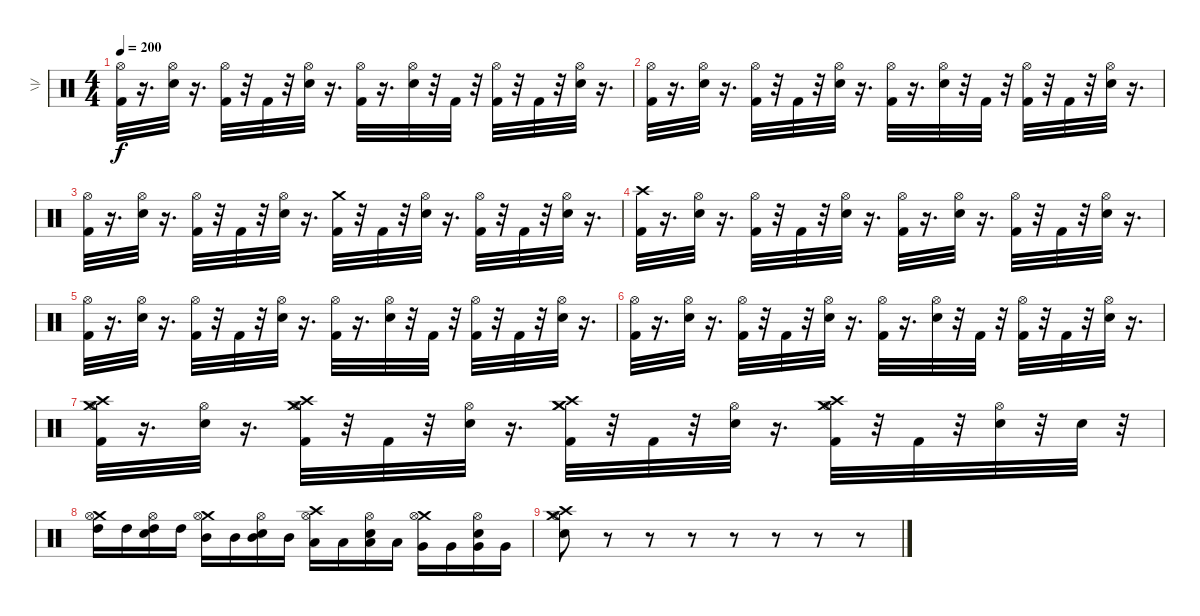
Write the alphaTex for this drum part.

\track ("  \\|/" "  \\|/") {instrument percussion}
\staff {score}
\articulation defaults
\ts (4 4)
\tempo 200
\clef neutral
\ks c
("Hi-Hat (open)" "Kick (hit) 2").32{dy f} r.16{d} ("Hi-Hat (open)" "Snare (hit) 2").32 r.16{d} ("Hi-Hat (open)" "Kick (hit) 2").32 r.32 "Kick (hit) 2".32 r.32 ("Hi-Hat (open)" "Snare (hit) 2").32 r.16{d} ("Hi-Hat (open)" "Kick (hit) 2").32 r.16{d} ("Hi-Hat (open)" "Snare (hit) 2").32 r.32 "Kick (hit) 2".32 r.32 ("Hi-Hat (open)" "Kick (hit) 2").32 r.32 "Kick (hit) 2".32 r.32 ("Snare (hit) 2" "Hi-Hat (open)").32 r.16{d} |
("Hi-Hat (open)" "Kick (hit) 2").32 r.16{d} ("Snare (hit) 2" "Hi-Hat (open)").32 r.16{d} ("Kick (hit) 2" "Hi-Hat (open)").32 r.32 "Kick (hit) 2".32 r.32 ("Hi-Hat (open)" "Snare (hit) 2").32 r.16{d} ("Kick (hit) 2" "Hi-Hat (open)").32 r.16{d} ("Snare (hit) 2" "Hi-Hat (open)").32 r.32 "Kick (hit) 2".32 r.32 ("Hi-Hat (open)" "Kick (hit) 2").32 r.32 "Kick (hit) 2".32 r.32 ("Snare (hit) 2" "Hi-Hat (open)").32 r.16{d} |
("Kick (hit) 2" "Hi-Hat (open)").32 r.16{d} ("Hi-Hat (open)" "Snare (hit) 2").32 r.16{d} ("Kick (hit) 2" "Hi-Hat (open)").32 r.32 "Kick (hit) 2".32 r.32 ("Snare (hit) 2" "Hi-Hat (open)").32 r.16{d} ("Crash medium (hit)" "Kick (hit) 2").32 r.32 "Kick (hit) 2".32 r.32 ("Hi-Hat (open)" "Snare (hit) 2").32 r.16{d} ("Hi-Hat (open)" "Kick (hit) 2").32 r.32 "Kick (hit) 2".32 r.32 ("Snare (hit) 2" "Hi-Hat (open)").32 r.16{d} |
("Crash high (hit)" "Kick (hit) 2").32 r.16{d} ("Snare (hit) 2" "Hi-Hat (open)").32 r.16{d} ("Kick (hit) 2" "Hi-Hat (open)").32 r.32 "Kick (hit) 2".32 r.32 ("Hi-Hat (open)" "Snare (hit) 2").32 r.16{d} ("Kick (hit) 2" "Hi-Hat (open)").32 r.16{d} ("Hi-Hat (open)" "Snare (hit) 2").32 r.16{d} ("Kick (hit) 2" "Hi-Hat (open)").32 r.32 "Kick (hit) 2".32 r.32 ("Snare (hit) 2" "Hi-Hat (open)").32 r.16{d} |
("Hi-Hat (open)" "Kick (hit) 2").32 r.16{d} ("Snare (hit) 2" "Hi-Hat (open)").32 r.16{d} ("Hi-Hat (open)" "Kick (hit) 2").32 r.32 "Kick (hit) 2".32 r.32 ("Snare (hit) 2" "Hi-Hat (open)").32 r.16{d} ("Hi-Hat (open)" "Kick (hit) 2").32 r.16{d} ("Snare (hit) 2" "Hi-Hat (open)").32 r.32 "Kick (hit) 2".32 r.32 ("Kick (hit) 2" "Hi-Hat (open)").32 r.32 "Kick (hit) 2".32 r.32 ("Hi-Hat (open)" "Snare (hit) 2").32 r.16{d} |
("Hi-Hat (open)" "Kick (hit) 2").32 r.16{d} ("Hi-Hat (open)" "Snare (hit) 2").32 r.16{d} ("Hi-Hat (open)" "Kick (hit) 2").32 r.32 "Kick (hit) 2".32 r.32 ("Hi-Hat (open)" "Snare (hit) 2").32 r.16{d} ("Kick (hit) 2" "Hi-Hat (open)").32 r.16{d} ("Hi-Hat (open)" "Snare (hit) 2").32 r.32 "Kick (hit) 2".32 r.32 ("Hi-Hat (open)" "Kick (hit) 2").32 r.32 "Kick (hit) 2".32 r.32 ("Snare (hit) 2" "Hi-Hat (open)").32 r.16{d} |
("Hi-Hat (open)" "Kick (hit) 2" "Crash medium (hit)" "Crash high (hit)").32 r.16{d} ("Snare (hit) 2" "Hi-Hat (open)").32 r.16{d} ("Hi-Hat (open)" "Kick (hit) 2" "Crash medium (hit)" "Crash high (hit)").32 r.32 "Kick (hit) 2".32 r.32 ("Snare (hit) 2" "Hi-Hat (open)").32 r.16{d} ("Crash medium (hit)" "Kick (hit) 2" "Crash medium (hit)" "Crash high (hit)").32 r.32 "Kick (hit) 2".32 r.32 ("Hi-Hat (open)" "Snare (hit) 2").32 r.16{d} ("Kick (hit) 2" "Hi-Hat (open)" "Crash medium (hit)" "Crash high (hit)").32 r.32 "Kick (hit) 2".32 r.32 ("Snare (hit) 2" "Hi-Hat (open)").32 r.32 "Snare (hit) 2".32 r.32 |
("Crash medium (hit)" "Hi-Hat (open)" "High Tom (hit)").16 "High Tom (hit)".16 ("Hi-Hat (open)" "Snare (hit) 2" "High Tom (hit)").16 "High Tom (hit)".16 ("Crash medium (hit)" "Hi-Hat (open)" "Mid Tom (hit)").16 "Mid Tom (hit)".16 ("Hi-Hat (open)" "Snare (hit) 2" "Mid Tom (hit)").16 "Mid Tom (hit)".16 ("Crash high (hit)" "Hi-Hat (open)" "Low Tom (hit)").16 "Low Tom (hit)".16 ("Hi-Hat (open)" "Snare (hit) 2" "Low Tom (hit)").16 "Low Tom (hit)".16 ("Crash medium (hit)" "Hi-Hat (open)" "Very Low Tom (hit)").16 "Very Low Tom (hit)".16 ("Hi-Hat (open)" "Snare (hit) 2" "Very Low Tom (hit)").16 "Very Low Tom (hit)".16 |
("Crash high (hit)" "Crash medium (hit)" "Snare (hit) 2" "Hi-Hat (open)").8 r.8 r.8 r.8 r.8 r.8 r.8 r.8
